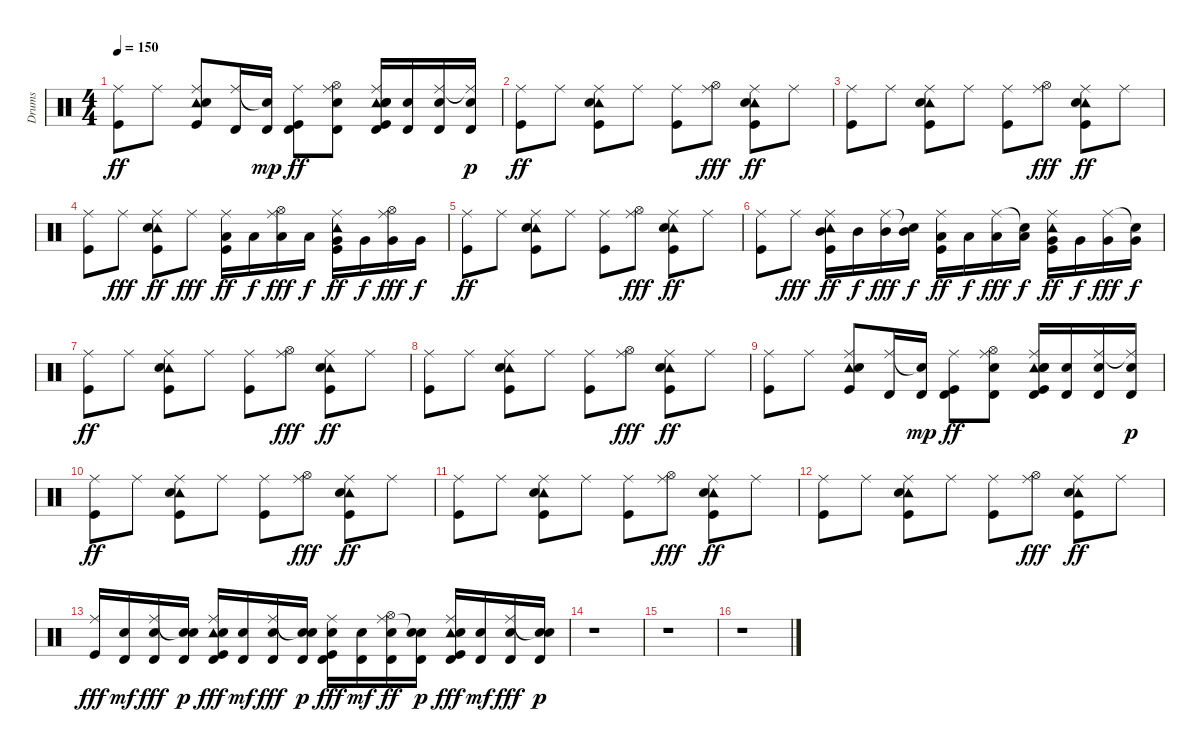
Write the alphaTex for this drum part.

\track ("Drums" "Drums") {instrument percussion}
\staff {score}
\articulation defaults
\ts (4 4)
\tempo 150
\clef neutral
\ks c
("Ride (middle)" "Kick (hit)").8{dy ff} "Ride (middle)".8 ("Ride (middle)" "Tambourine (hit)" "Electric Snare (hit)" "Kick (hit)").8 ("Timbale high (hit)" "Ride (middle)").16 ("Timbale high (hit)" "Snare (hit)"{t}).16{dy mp} ("Timbale high (hit)" "Ride (middle)" "Kick (hit)").8{dy ff} ("Timbale high (hit)" "Ride (middle)" "Hi-Hat (open)" "Snare (hit) 2").8 ("Timbale high (hit)" "Ride (middle)" "Tambourine (hit)" "Electric Snare (hit)" "Snare (hit) 2" "Kick (hit)").16 ("Timbale high (hit)" "Snare (hit) 2").16 ("Timbale high (hit)" "Ride (middle)" "Snare (hit) 2").16 ("Timbale high (hit)" "Ride (middle)"{t} "Snare (hit) 2").16{dy p} |
("Ride (middle)" "Kick (hit)").8{dy ff} "Ride (middle)".8 ("Ride (middle)" "Tambourine (hit)" "Electric Snare (hit)" "Kick (hit)").8 "Ride (middle)".8 ("Ride (middle)" "Kick (hit)").8 ("Ride (middle)" "Hi-Hat (open)").8{dy fff} ("Ride (middle)" "Tambourine (hit)" "Electric Snare (hit)" "Kick (hit)").8{dy ff} "Ride (middle)".8 |
("Ride (middle)" "Kick (hit)").8 "Ride (middle)".8 ("Ride (middle)" "Tambourine (hit)" "Electric Snare (hit)" "Kick (hit)").8 "Ride (middle)".8 ("Ride (middle)" "Kick (hit)").8 ("Ride (middle)" "Hi-Hat (open)").8{dy fff} ("Ride (middle)" "Tambourine (hit)" "Electric Snare (hit)" "Kick (hit)").8{dy ff} "Ride (middle)".8 |
("Ride (middle)" "Kick (hit)").8 "Ride (middle)".8{dy fff} ("Ride (middle)" "Tambourine (hit)" "Electric Snare (hit)" "Kick (hit)").8{dy ff} "Ride (middle)".8{dy fff} ("Ride (middle)" "Low Floor Tom (hit)" "Kick (hit)").16{dy ff} "Low Floor Tom (hit)".16{dy f} ("Ride (middle)" "Hi-Hat (open)" "Low Floor Tom (hit)").16{dy fff} "Low Floor Tom (hit)".16{dy f} ("Ride (middle)" "Tambourine (hit)" "Very Low Tom (hit)" "Kick (hit)").16{dy ff} "Very Low Tom (hit)".16{dy f} ("Ride (middle)" "Hi-Hat (open)" "Very Low Tom (hit)").16{dy fff} "Very Low Tom (hit)".16{dy f} |
("Ride (middle)" "Kick (hit)").8{dy ff} "Ride (middle)".8 ("Ride (middle)" "Tambourine (hit)" "Electric Snare (hit)" "Kick (hit)").8 "Ride (middle)".8 ("Ride (middle)" "Kick (hit)").8 ("Ride (middle)" "Hi-Hat (open)").8{dy fff} ("Ride (middle)" "Tambourine (hit)" "Electric Snare (hit)" "Kick (hit)").8{dy ff} "Ride (middle)".8 |
("Ride (middle)" "Kick (hit)").8 "Ride (middle)".8{dy fff} ("Ride (middle)" "Tambourine (hit)" "Mid Tom (hit)" "Kick (hit)").16{dy ff} "Mid Tom (hit)".16{dy f} ("Ride (middle)" "Mid Tom (hit)").16{dy fff} ("Snare (hit)"{t} "Mid Tom (hit)").16{dy f} ("Ride (middle)" "Low Tom (hit)" "Kick (hit)").16{dy ff} "Low Tom (hit)".16{dy f} ("Ride (middle)" "Low Tom (hit)").16{dy fff} ("Snare (hit)"{t} "Low Tom (hit)").16{dy f} ("Ride (middle)" "Tambourine (hit)" "Very Low Tom (hit)" "Kick (hit)").16{dy ff} "Very Low Tom (hit)".16{dy f} ("Ride (middle)" "Very Low Tom (hit)").16{dy fff} ("Snare (hit)"{t} "Very Low Tom (hit)").16{dy f} |
("Ride (middle)" "Kick (hit)").8{dy ff} "Ride (middle)".8 ("Ride (middle)" "Tambourine (hit)" "Electric Snare (hit)" "Kick (hit)").8 "Ride (middle)".8 ("Ride (middle)" "Kick (hit)").8 ("Ride (middle)" "Hi-Hat (open)").8{dy fff} ("Ride (middle)" "Tambourine (hit)" "Electric Snare (hit)" "Kick (hit)").8{dy ff} "Ride (middle)".8 |
("Ride (middle)" "Kick (hit)").8 "Ride (middle)".8 ("Ride (middle)" "Tambourine (hit)" "Electric Snare (hit)" "Kick (hit)").8 "Ride (middle)".8 ("Ride (middle)" "Kick (hit)").8 ("Ride (middle)" "Hi-Hat (open)").8{dy fff} ("Ride (middle)" "Tambourine (hit)" "Electric Snare (hit)" "Kick (hit)").8{dy ff} "Ride (middle)".8 |
("Ride (middle)" "Kick (hit)").8 "Ride (middle)".8 ("Ride (middle)" "Tambourine (hit)" "Electric Snare (hit)" "Kick (hit)").8 ("Timbale high (hit)" "Ride (middle)").16 ("Timbale high (hit)" "Snare (hit)"{t}).16{dy mp} ("Timbale high (hit)" "Ride (middle)" "Kick (hit)").8{dy ff} ("Timbale high (hit)" "Ride (middle)" "Hi-Hat (open)" "Snare (hit) 2").8 ("Timbale high (hit)" "Ride (middle)" "Tambourine (hit)" "Electric Snare (hit)" "Snare (hit) 2" "Kick (hit)").16 ("Timbale high (hit)" "Snare (hit) 2").16 ("Timbale high (hit)" "Ride (middle)" "Snare (hit) 2").16 ("Timbale high (hit)" "Ride (middle)"{t} "Snare (hit) 2").16{dy p} |
("Ride (middle)" "Kick (hit)").8{dy ff} "Ride (middle)".8 ("Ride (middle)" "Tambourine (hit)" "Electric Snare (hit)" "Kick (hit)").8 "Ride (middle)".8 ("Ride (middle)" "Kick (hit)").8 ("Ride (middle)" "Hi-Hat (open)").8{dy fff} ("Ride (middle)" "Tambourine (hit)" "Electric Snare (hit)" "Kick (hit)").8{dy ff} "Ride (middle)".8 |
("Ride (middle)" "Kick (hit)").8 "Ride (middle)".8 ("Ride (middle)" "Tambourine (hit)" "Electric Snare (hit)" "Kick (hit)").8 "Ride (middle)".8 ("Ride (middle)" "Kick (hit)").8 ("Ride (middle)" "Hi-Hat (open)").8{dy fff} ("Ride (middle)" "Tambourine (hit)" "Electric Snare (hit)" "Kick (hit)").8{dy ff} "Ride (middle)".8 |
("Ride (middle)" "Kick (hit)").8 "Ride (middle)".8 ("Ride (middle)" "Tambourine (hit)" "Electric Snare (hit)" "Kick (hit)").8 "Ride (middle)".8 ("Ride (middle)" "Kick (hit)").8 ("Ride (middle)" "Hi-Hat (open)").8{dy fff} ("Ride (middle)" "Tambourine (hit)" "Electric Snare (hit)" "Kick (hit)").8{dy ff} "Ride (middle)".8 |
("Ride (middle)" "Kick (hit)").16{dy fff} ("Timbale high (hit)" "Snare (hit) 2").16{dy mf} ("Timbale high (hit)" "Ride (middle)" "Snare (hit) 2").16{dy fff} ("Timbale high (hit)" "Snare (hit)"{t} "Snare (hit) 2").16{dy p} ("Timbale high (hit)" "Ride (middle)" "Tambourine (hit)" "Snare (hit) 2" "Kick (hit)").16{dy fff} ("Timbale high (hit)" "Snare (hit) 2").16{dy mf} ("Timbale high (hit)" "Ride (middle)" "Snare (hit) 2").16{dy fff} ("Timbale high (hit)" "Snare (hit)"{t} "Snare (hit) 2").16{dy p} ("Timbale high (hit)" "Ride (middle)" "Snare (hit) 2" "Kick (hit)").16{dy fff} ("Timbale high (hit)" "Snare (hit) 2").16{dy mf} ("Timbale high (hit)" "Ride (middle)" "Hi-Hat (open)" "Snare (hit) 2").16{dy ff} ("Timbale high (hit)" "Snare (hit)"{t} "Snare (hit) 2").16{dy p} ("Timbale high (hit)" "Ride (middle)" "Tambourine (hit)" "Snare (hit) 2" "Kick (hit)").16{dy fff} ("Timbale high (hit)" "Snare (hit) 2").16{dy mf} ("Timbale high (hit)" "Ride (middle)" "Snare (hit) 2").16{dy fff} ("Timbale high (hit)" "Snare (hit)"{t} "Snare (hit) 2").16{dy p} |
r.1 |
r.1 |
r.1
